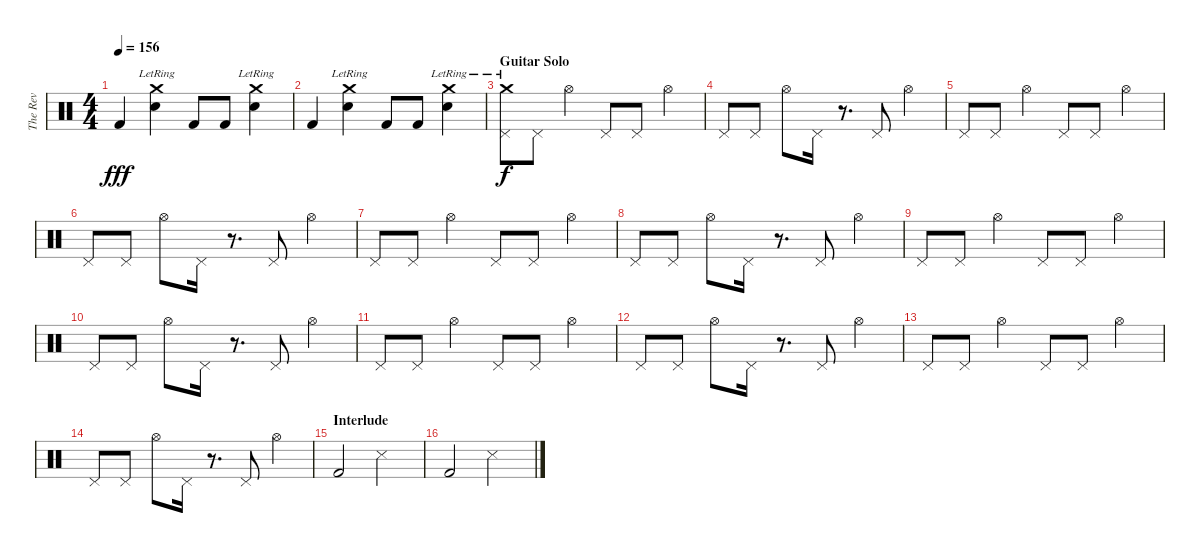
\track ("The Rev" "The Rev") {instrument percussion}
\staff {score}
\articulation defaults
\ts (4 4)
\tempo 156
\clef neutral
\ks c "Kick (hit) 2".4{dy fff}
("Crash medium (hit)"{lr} "Electric Snare (hit)").4 "Kick (hit) 2".8 "Kick (hit) 2".8 ("Crash medium (hit)"{lr} "Electric Snare (hit)").4 |
"Kick (hit) 2".4 ("Crash medium (hit)"{lr} "Electric Snare (hit)").4 "Kick (hit) 2".8 "Kick (hit) 2".8 ("Crash medium (hit)"{lr} "Electric Snare (hit)").4 |
\section ("" "Guitar Solo")
("Crash medium (hit)"{lr} "Pedal Hi-Hat (hit)").8{dy f volume 8} "Pedal Hi-Hat (hit)".8 "Hi-Hat (open)".4 "Pedal Hi-Hat (hit)".8 "Pedal Hi-Hat (hit)".8 "Hi-Hat (open)".4 |
"Pedal Hi-Hat (hit)".8 "Pedal Hi-Hat (hit)".8 "Hi-Hat (open)".8 "Pedal Hi-Hat (hit)".16 r.8{d} "Pedal Hi-Hat (hit)".8 "Hi-Hat (open)".4 |
"Pedal Hi-Hat (hit)".8 "Pedal Hi-Hat (hit)".8 "Hi-Hat (open)".4 "Pedal Hi-Hat (hit)".8 "Pedal Hi-Hat (hit)".8 "Hi-Hat (open)".4 |
"Pedal Hi-Hat (hit)".8 "Pedal Hi-Hat (hit)".8 "Hi-Hat (open)".8 "Pedal Hi-Hat (hit)".16 r.8{d} "Pedal Hi-Hat (hit)".8 "Hi-Hat (open)".4 |
"Pedal Hi-Hat (hit)".8 "Pedal Hi-Hat (hit)".8 "Hi-Hat (open)".4 "Pedal Hi-Hat (hit)".8 "Pedal Hi-Hat (hit)".8 "Hi-Hat (open)".4 |
"Pedal Hi-Hat (hit)".8 "Pedal Hi-Hat (hit)".8 "Hi-Hat (open)".8 "Pedal Hi-Hat (hit)".16 r.8{d} "Pedal Hi-Hat (hit)".8 "Hi-Hat (open)".4 |
"Pedal Hi-Hat (hit)".8 "Pedal Hi-Hat (hit)".8 "Hi-Hat (open)".4 "Pedal Hi-Hat (hit)".8 "Pedal Hi-Hat (hit)".8 "Hi-Hat (open)".4 |
"Pedal Hi-Hat (hit)".8 "Pedal Hi-Hat (hit)".8 "Hi-Hat (open)".8 "Pedal Hi-Hat (hit)".16 r.8{d} "Pedal Hi-Hat (hit)".8 "Hi-Hat (open)".4 |
"Pedal Hi-Hat (hit)".8 "Pedal Hi-Hat (hit)".8 "Hi-Hat (open)".4 "Pedal Hi-Hat (hit)".8 "Pedal Hi-Hat (hit)".8 "Hi-Hat (open)".4 |
"Pedal Hi-Hat (hit)".8 "Pedal Hi-Hat (hit)".8 "Hi-Hat (open)".8 "Pedal Hi-Hat (hit)".16 r.8{d} "Pedal Hi-Hat (hit)".8 "Hi-Hat (open)".4 |
"Pedal Hi-Hat (hit)".8 "Pedal Hi-Hat (hit)".8 "Hi-Hat (open)".4 "Pedal Hi-Hat (hit)".8 "Pedal Hi-Hat (hit)".8 "Hi-Hat (open)".4 |
"Pedal Hi-Hat (hit)".8 "Pedal Hi-Hat (hit)".8 "Hi-Hat (open)".8 "Pedal Hi-Hat (hit)".16 r.8{d} "Pedal Hi-Hat (hit)".8 "Hi-Hat (open)".4 |
\section ("" "Interlude")
"Kick (hit) 2".2{volume 16} "Metronome (hit)".2 |
"Kick (hit) 2".2 "Metronome (hit)".2
